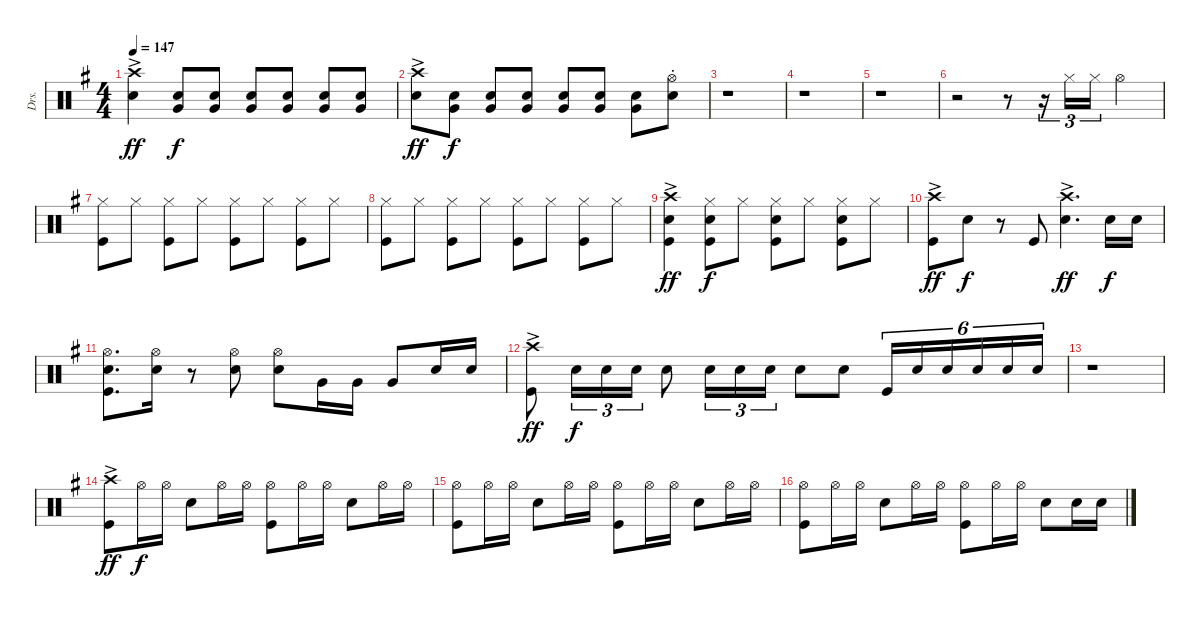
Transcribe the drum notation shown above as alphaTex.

\track ("Drs." "Drs.") {instrument percussion}
\staff {score}
\articulation defaults
\ts (4 4)
\tempo 147
\clef neutral
\ks eminor
("Crash high (hit)"{ac} "Snare (hit) 2").4{dy ff} ("Snare (hit) 2" "Very Low Tom (hit)").8{dy f} ("Snare (hit) 2" "Very Low Tom (hit)").8 ("Snare (hit) 2" "Very Low Tom (hit)").8 ("Snare (hit) 2" "Very Low Tom (hit)").8 ("Snare (hit) 2" "Very Low Tom (hit)").8 ("Snare (hit) 2" "Very Low Tom (hit)").8 |
("Crash high (hit)"{ac} "Snare (hit) 2").8{dy ff} ("Snare (hit) 2" "Very Low Tom (hit)").8{dy f} ("Snare (hit) 2" "Very Low Tom (hit)").8 ("Snare (hit) 2" "Very Low Tom (hit)").8 ("Snare (hit) 2" "Very Low Tom (hit)").8 ("Snare (hit) 2" "Very Low Tom (hit)").8 ("Snare (hit) 2" "Very Low Tom (hit)").8 ("Hi-Hat (open)"{st} "Snare (hit) 2"{st}).8 |
r.1 |
r.1 |
r.1 |
r.2 r.8 r.16{tu (3 2)} "Hi-Hat (closed)".16{tu (3 2)} "Hi-Hat (closed)".16{tu (3 2)} "Hi-Hat (open)".4 |
("Hi-Hat (closed)" "Kick (hit)").8 "Hi-Hat (closed)".8 ("Hi-Hat (closed)" "Kick (hit)").8 "Hi-Hat (closed)".8 ("Hi-Hat (closed)" "Kick (hit)").8 "Hi-Hat (closed)".8 ("Hi-Hat (closed)" "Kick (hit)").8 "Hi-Hat (closed)".8 |
("Hi-Hat (closed)" "Kick (hit)").8 "Hi-Hat (closed)".8 ("Hi-Hat (closed)" "Kick (hit)").8 "Hi-Hat (closed)".8 ("Hi-Hat (closed)" "Kick (hit)").8 "Hi-Hat (closed)".8 ("Hi-Hat (closed)" "Kick (hit)").8 "Hi-Hat (closed)".8 |
("Crash high (hit)"{ac} "Snare (hit) 2" "Kick (hit)").4{dy ff} ("Hi-Hat (closed)" "Snare (hit) 2" "Kick (hit)").8{dy f} "Hi-Hat (closed)".8 ("Hi-Hat (closed)" "Snare (hit) 2" "Kick (hit)").8 "Hi-Hat (closed)".8 ("Hi-Hat (closed)" "Snare (hit) 2" "Kick (hit)").8 "Hi-Hat (closed)".8 |
("Crash high (hit)"{ac} "Kick (hit)").8{dy ff} "Snare (hit) 2".8{dy f} r.8 "Kick (hit)".8 ("Crash high (hit)"{ac} "Snare (hit) 2").4{d dy ff} "Snare (hit) 2".16{dy f} "Snare (hit) 2".16 |
("Hi-Hat (open)" "Snare (hit) 2" "Kick (hit)").8{d} ("Hi-Hat (open)" "Snare (hit) 2").16 r.8 ("Hi-Hat (open)" "Snare (hit) 2").8 ("Hi-Hat (open)" "Snare (hit) 2").8 "Very Low Tom (hit)".16 "Very Low Tom (hit)".16 "Very Low Tom (hit)".8 "Snare (hit) 2".16 "Snare (hit) 2".16 |
("Crash high (hit)"{ac} "Kick (hit)").8{dy ff} "Snare (hit) 2".16{tu (3 2) dy f} "Snare (hit) 2".16{tu (3 2)} "Snare (hit) 2".16{tu (3 2)} "Snare (hit) 2".8 "Snare (hit) 2".16{tu (3 2)} "Snare (hit) 2".16{tu (3 2)} "Snare (hit) 2".16{tu (3 2)} "Snare (hit) 2".8 "Snare (hit) 2".8 "Kick (hit)".16{tu (6 4)} "Snare (hit) 2".16{tu (6 4)} "Snare (hit) 2".16{tu (6 4)} "Snare (hit) 2".16{tu (6 4)} "Snare (hit) 2".16{tu (6 4)} "Snare (hit) 2".16{tu (6 4)} |
r.1 |
("Crash high (hit)"{ac} "Kick (hit)").8{dy ff} "Hi-Hat (open)".16{dy f} "Hi-Hat (open)".16 "Snare (hit) 2".8 "Hi-Hat (open)".16 "Hi-Hat (open)".16 ("Hi-Hat (open)" "Kick (hit)").8 "Hi-Hat (open)".16 "Hi-Hat (open)".16 "Snare (hit) 2".8 "Hi-Hat (open)".16 "Hi-Hat (open)".16 |
("Hi-Hat (open)" "Kick (hit)").8 "Hi-Hat (open)".16 "Hi-Hat (open)".16 "Snare (hit) 2".8 "Hi-Hat (open)".16 "Hi-Hat (open)".16 ("Hi-Hat (open)" "Kick (hit)").8 "Hi-Hat (open)".16 "Hi-Hat (open)".16 "Snare (hit) 2".8 "Hi-Hat (open)".16 "Hi-Hat (open)".16 |
("Hi-Hat (open)" "Kick (hit)").8 "Hi-Hat (open)".16 "Hi-Hat (open)".16 "Snare (hit) 2".8 "Hi-Hat (open)".16 "Hi-Hat (open)".16 ("Hi-Hat (open)" "Kick (hit)").8 "Hi-Hat (open)".16 "Hi-Hat (open)".16 "Snare (hit) 2".8 "Snare (hit) 2".16 "Snare (hit) 2".16
